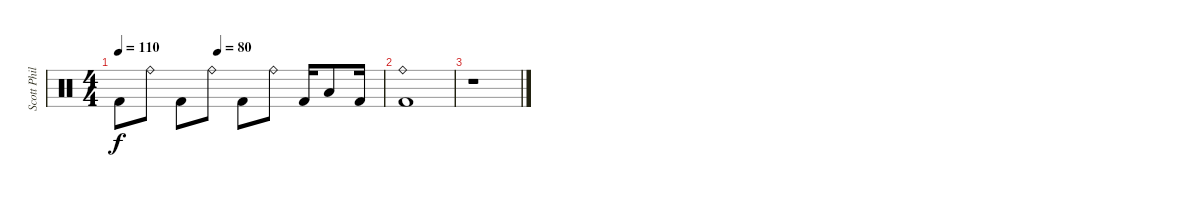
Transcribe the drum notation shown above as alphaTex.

\track ("Scott Phillips" "Scott Phil") {instrument percussion}
\staff {score}
\articulation defaults
\ts (4 4)
\tempo 110
\tempo (80 0.375)
\clef neutral
\ks c "Kick (hit) 2".8{dy f} "Ride (bell)".8 "Kick (hit) 2".8 "Ride (bell)".8 "Kick (hit) 2".8 "Ride (bell)".8 "Kick (hit) 2".16 "Low Tom (hit)".8 "Kick (hit) 2".16
|
("Ride (bell)" "Kick (hit) 2").1 |
r.1
